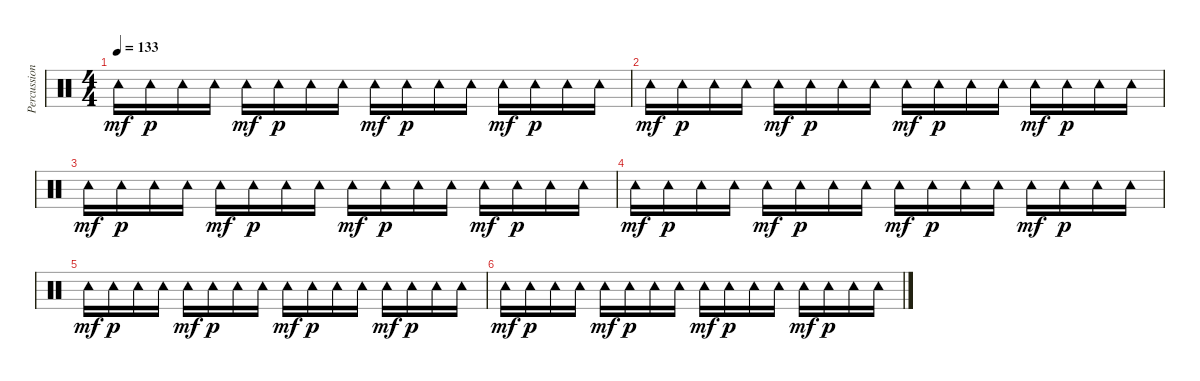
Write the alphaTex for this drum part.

\track ("Percussion" "Percussion") {instrument percussion}
\staff {score}
\articulation defaults
\ts (4 4)
\tempo 133
\clef neutral
\ks c "Tambourine (hit)".16{dy mf} "Tambourine (hit)".16{dy p} "Tambourine (hit)".16 "Tambourine (hit)".16 "Tambourine (hit)".16{dy mf} "Tambourine (hit)".16{dy p} "Tambourine (hit)".16 "Tambourine (hit)".16 "Tambourine (hit)".16{dy mf} "Tambourine (hit)".16{dy p} "Tambourine (hit)".16 "Tambourine (hit)".16 "Tambourine (hit)".16{dy mf} "Tambourine (hit)".16{dy p} "Tambourine (hit)".16 "Tambourine (hit)".16
|
"Tambourine (hit)".16{dy mf} "Tambourine (hit)".16{dy p} "Tambourine (hit)".16 "Tambourine (hit)".16 "Tambourine (hit)".16{dy mf} "Tambourine (hit)".16{dy p} "Tambourine (hit)".16 "Tambourine (hit)".16 "Tambourine (hit)".16{dy mf} "Tambourine (hit)".16{dy p} "Tambourine (hit)".16 "Tambourine (hit)".16 "Tambourine (hit)".16{dy mf} "Tambourine (hit)".16{dy p} "Tambourine (hit)".16 "Tambourine (hit)".16 |
"Tambourine (hit)".16{dy mf} "Tambourine (hit)".16{dy p} "Tambourine (hit)".16 "Tambourine (hit)".16 "Tambourine (hit)".16{dy mf} "Tambourine (hit)".16{dy p} "Tambourine (hit)".16 "Tambourine (hit)".16 "Tambourine (hit)".16{dy mf} "Tambourine (hit)".16{dy p} "Tambourine (hit)".16 "Tambourine (hit)".16 "Tambourine (hit)".16{dy mf} "Tambourine (hit)".16{dy p} "Tambourine (hit)".16 "Tambourine (hit)".16 |
"Tambourine (hit)".16{dy mf} "Tambourine (hit)".16{dy p} "Tambourine (hit)".16 "Tambourine (hit)".16 "Tambourine (hit)".16{dy mf} "Tambourine (hit)".16{dy p} "Tambourine (hit)".16 "Tambourine (hit)".16 "Tambourine (hit)".16{dy mf} "Tambourine (hit)".16{dy p} "Tambourine (hit)".16 "Tambourine (hit)".16 "Tambourine (hit)".16{dy mf} "Tambourine (hit)".16{dy p} "Tambourine (hit)".16 "Tambourine (hit)".16 |
"Tambourine (hit)".16{dy mf} "Tambourine (hit)".16{dy p} "Tambourine (hit)".16 "Tambourine (hit)".16 "Tambourine (hit)".16{dy mf} "Tambourine (hit)".16{dy p} "Tambourine (hit)".16 "Tambourine (hit)".16 "Tambourine (hit)".16{dy mf} "Tambourine (hit)".16{dy p} "Tambourine (hit)".16 "Tambourine (hit)".16 "Tambourine (hit)".16{dy mf} "Tambourine (hit)".16{dy p} "Tambourine (hit)".16 "Tambourine (hit)".16 |
"Tambourine (hit)".16{dy mf} "Tambourine (hit)".16{dy p} "Tambourine (hit)".16 "Tambourine (hit)".16 "Tambourine (hit)".16{dy mf} "Tambourine (hit)".16{dy p} "Tambourine (hit)".16 "Tambourine (hit)".16 "Tambourine (hit)".16{dy mf} "Tambourine (hit)".16{dy p} "Tambourine (hit)".16 "Tambourine (hit)".16 "Tambourine (hit)".16{dy mf} "Tambourine (hit)".16{dy p} "Tambourine (hit)".16 "Tambourine (hit)".16
